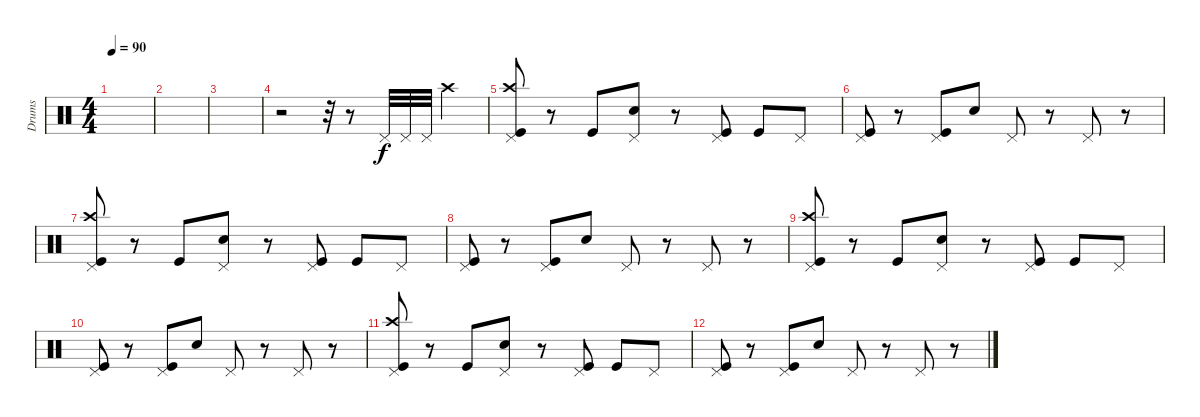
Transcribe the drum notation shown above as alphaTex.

\track ("Drums" "Drums") {instrument percussion}
\staff {score}
\articulation defaults
\ts (4 4)
\tempo 90
\clef neutral
\ks c
|
|
|
r.2 r.32 r.8 "Pedal Hi-Hat (hit)".32 "Pedal Hi-Hat (hit)".32 "Pedal Hi-Hat (hit)".32 "Crash high (hit)".4 |
("Pedal Hi-Hat (hit)" "Crash high (hit)" "Kick (hit)").8 r.8 "Kick (hit)".8 ("Pedal Hi-Hat (hit)" "Snare (hit) 2").8 r.8 ("Pedal Hi-Hat (hit)" "Kick (hit)").8 "Kick (hit)".8 "Pedal Hi-Hat (hit)".8 |
("Pedal Hi-Hat (hit)" "Kick (hit)").8 r.8 ("Pedal Hi-Hat (hit)" "Kick (hit)").8 "Snare (hit) 2".8 "Pedal Hi-Hat (hit)".8 r.8 "Pedal Hi-Hat (hit)".8 r.8 |
("Pedal Hi-Hat (hit)" "Crash high (hit)" "Kick (hit)").8 r.8 "Kick (hit)".8 ("Pedal Hi-Hat (hit)" "Snare (hit) 2").8 r.8 ("Pedal Hi-Hat (hit)" "Kick (hit)").8 "Kick (hit)".8 "Pedal Hi-Hat (hit)".8 |
("Pedal Hi-Hat (hit)" "Kick (hit)").8 r.8 ("Pedal Hi-Hat (hit)" "Kick (hit)").8 "Snare (hit) 2".8 "Pedal Hi-Hat (hit)".8 r.8 "Pedal Hi-Hat (hit)".8 r.8 |
("Pedal Hi-Hat (hit)" "Crash high (hit)" "Kick (hit)").8 r.8 "Kick (hit)".8 ("Pedal Hi-Hat (hit)" "Snare (hit) 2").8 r.8 ("Pedal Hi-Hat (hit)" "Kick (hit)").8 "Kick (hit)".8 "Pedal Hi-Hat (hit)".8 |
("Pedal Hi-Hat (hit)" "Kick (hit)").8 r.8 ("Pedal Hi-Hat (hit)" "Kick (hit)").8 "Snare (hit) 2".8 "Pedal Hi-Hat (hit)".8 r.8 "Pedal Hi-Hat (hit)".8 r.8 |
("Pedal Hi-Hat (hit)" "Crash high (hit)" "Kick (hit)").8 r.8 "Kick (hit)".8 ("Pedal Hi-Hat (hit)" "Snare (hit) 2").8 r.8 ("Pedal Hi-Hat (hit)" "Kick (hit)").8 "Kick (hit)".8 "Pedal Hi-Hat (hit)".8 |
("Pedal Hi-Hat (hit)" "Kick (hit)").8 r.8 ("Pedal Hi-Hat (hit)" "Kick (hit)").8 "Snare (hit) 2".8 "Pedal Hi-Hat (hit)".8 r.8 "Pedal Hi-Hat (hit)".8 r.8
